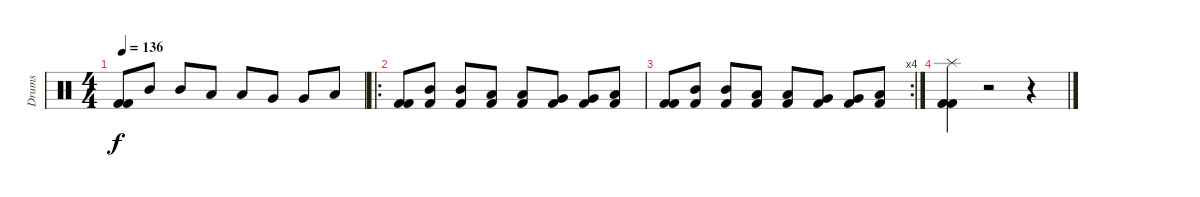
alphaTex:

\track ("Drums" "Drums") {instrument percussion}
\staff {score}
\articulation defaults
\ts (4 4)
\tempo 136
\clef neutral
\ks c
("Kick (hit) 2" "Kick (hit) 2").8{dy f} "Mid Tom (hit)".8 "Mid Tom (hit)".8 "Low Tom (hit)".8 "Low Tom (hit)".8 "Very Low Tom (hit)".8 "Very Low Tom (hit)".8 "Low Floor Tom (hit)".8 |
\ro
("Kick (hit) 2" "Kick (hit) 2").8 ("Mid Tom (hit)" "Kick (hit) 2").8 ("Mid Tom (hit)" "Kick (hit) 2").8 ("Low Tom (hit)" "Kick (hit) 2").8 ("Low Tom (hit)" "Kick (hit) 2").8 ("Very Low Tom (hit)" "Kick (hit) 2").8 ("Very Low Tom (hit)" "Kick (hit) 2").8 ("Low Floor Tom (hit)" "Kick (hit) 2").8 |
\rc 4
("Kick (hit) 2" "Kick (hit) 2").8 ("Mid Tom (hit)" "Kick (hit) 2").8 ("Mid Tom (hit)" "Kick (hit) 2").8 ("Low Tom (hit)" "Kick (hit) 2").8 ("Low Tom (hit)" "Kick (hit) 2").8 ("Very Low Tom (hit)" "Kick (hit) 2").8 ("Very Low Tom (hit)" "Kick (hit) 2").8 ("Low Floor Tom (hit)" "Kick (hit) 2").8 |
("Splash (hit)" "Kick (hit) 2" "Kick (hit) 2").4 r.2 r.4
